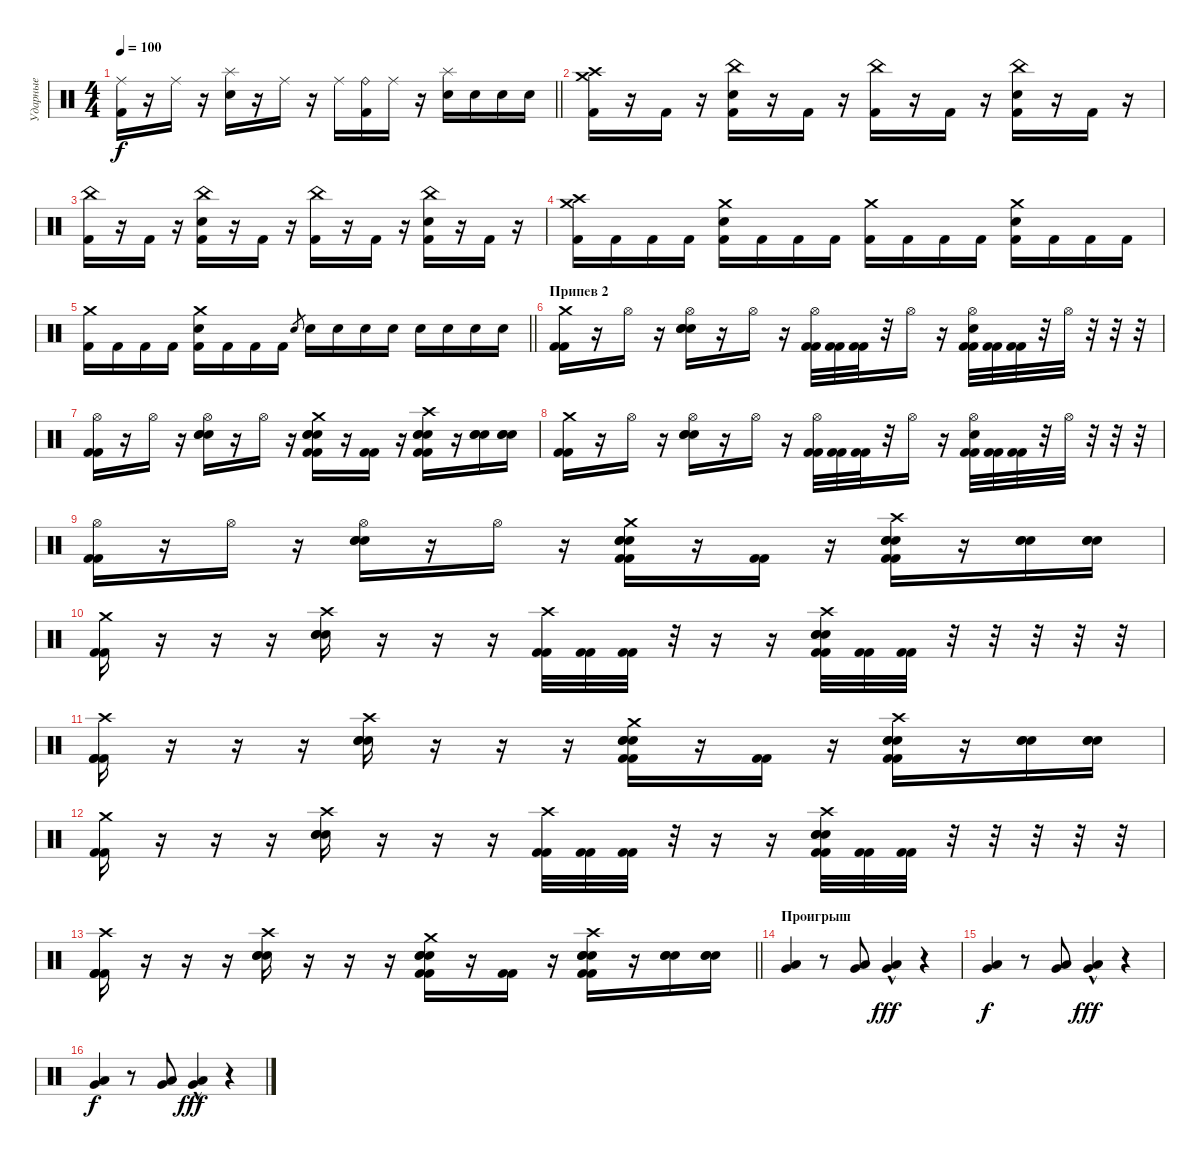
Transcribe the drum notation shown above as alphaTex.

\track ("Ударные" "Ударные") {instrument percussion}
\staff {score}
\articulation defaults
\ts (4 4)
\tempo 100
\clef neutral
\barLineRight lightlight
\ks c
("Ride (middle)" "Kick (hit) 2").16{dy f} r.16 "Ride (middle)".16 r.16 ("Splash (hit)" "Electric Snare (hit)").16 r.16 "Ride (middle)".16 r.16 "Ride (middle)".16 ("Ride (bell)" "Kick (hit) 2").16 "Ride (middle)".16 r.16 ("Splash (hit)" "Electric Snare (hit)").16 "Electric Snare (hit)".16 "Electric Snare (hit)".16 "Electric Snare (hit)".16 |
("Crash medium (hit)" "Crash high (hit)" "Kick (hit) 2").16 r.16 "Kick (hit) 2".16 r.16 ("China (hit)" "Electric Snare (hit)" "Kick (hit) 2").16 r.16 "Kick (hit) 2".16 r.16 ("China (hit)" "Kick (hit) 2").16 r.16 "Kick (hit) 2".16 r.16 ("China (hit)" "Electric Snare (hit)" "Kick (hit) 2").16 r.16 "Kick (hit) 2".16 r.16 |
("China (hit)" "Kick (hit) 2").16 r.16 "Kick (hit) 2".16 r.16 ("China (hit)" "Electric Snare (hit)" "Kick (hit) 2").16 r.16 "Kick (hit) 2".16 r.16 ("China (hit)" "Kick (hit) 2").16 r.16 "Kick (hit) 2".16 r.16 ("China (hit)" "Electric Snare (hit)" "Kick (hit) 2").16 r.16 "Kick (hit) 2".16 r.16 |
("Crash medium (hit)" "Crash high (hit)" "Kick (hit) 2").16 "Kick (hit) 2".16 "Kick (hit) 2".16 "Kick (hit) 2".16 ("Crash medium (hit)" "Electric Snare (hit)" "Kick (hit) 2").16 "Kick (hit) 2".16 "Kick (hit) 2".16 "Kick (hit) 2".16 ("Crash medium (hit)" "Kick (hit) 2").16 "Kick (hit) 2".16 "Kick (hit) 2".16 "Kick (hit) 2".16 ("Crash medium (hit)" "Electric Snare (hit)" "Kick (hit) 2").16 "Kick (hit) 2".16 "Kick (hit) 2".16 "Kick (hit) 2".16 |
\barLineRight lightlight
("Crash medium (hit)" "Kick (hit) 2").16 "Kick (hit) 2".16 "Kick (hit) 2".16 "Kick (hit) 2".16 ("Crash medium (hit)" "Electric Snare (hit)" "Kick (hit) 2").16 "Kick (hit) 2".16 "Kick (hit) 2".16 "Kick (hit) 2".16 "Electric Snare (hit)".8{gr} "Electric Snare (hit)".16 "Electric Snare (hit)".16 "Electric Snare (hit)".16 "Electric Snare (hit)".16 "Electric Snare (hit)".16 "Electric Snare (hit)".16 "Electric Snare (hit)".16 "Electric Snare (hit)".16 |
\section ("" "Припев 2")
("Crash medium (hit)" "Kick (hit) 2" "Kick (hit) 2").16 r.16 "Hi-Hat (open)".16 r.16 ("Hi-Hat (open)" "Electric Snare (hit)" "Electric Snare (hit)" "Electric Snare (hit)").16 r.16 "Hi-Hat (open)".16 r.16 ("Hi-Hat (open)" "Kick (hit) 2" "Kick (hit) 2").32 ("Kick (hit) 2" "Kick (hit) 2").32 ("Kick (hit) 2" "Kick (hit) 2").32 r.32 "Hi-Hat (open)".16 r.16 ("Hi-Hat (open)" "Electric Snare (hit)" "Kick (hit) 2" "Kick (hit) 2").32 ("Kick (hit) 2" "Kick (hit) 2").32 ("Kick (hit) 2" "Kick (hit) 2").32 r.32 "Hi-Hat (open)".32 r.32 r.32 r.32 |
("Hi-Hat (open)" "Kick (hit) 2" "Kick (hit) 2").16 r.16 "Hi-Hat (open)".16 r.16 ("Hi-Hat (open)" "Electric Snare (hit)" "Electric Snare (hit)" "Electric Snare (hit)").16 r.16 "Hi-Hat (open)".16 r.16 ("Crash medium (hit)" "Electric Snare (hit)" "Electric Snare (hit)" "Electric Snare (hit)" "Kick (hit) 2" "Kick (hit) 2").16 r.16 ("Kick (hit) 2" "Kick (hit) 2").16 r.16 ("Crash high (hit)" "Electric Snare (hit)" "Electric Snare (hit)" "Electric Snare (hit)" "Kick (hit) 2" "Kick (hit) 2").16 r.16 ("Electric Snare (hit)" "Electric Snare (hit)" "Electric Snare (hit)").16 ("Electric Snare (hit)" "Electric Snare (hit)" "Electric Snare (hit)").16 |
("Crash medium (hit)" "Kick (hit) 2" "Kick (hit) 2").16 r.16 "Hi-Hat (open)".16 r.16 ("Hi-Hat (open)" "Electric Snare (hit)" "Electric Snare (hit)" "Electric Snare (hit)").16 r.16 "Hi-Hat (open)".16 r.16 ("Hi-Hat (open)" "Kick (hit) 2" "Kick (hit) 2").32 ("Kick (hit) 2" "Kick (hit) 2").32 ("Kick (hit) 2" "Kick (hit) 2").32 r.32 "Hi-Hat (open)".16 r.16 ("Hi-Hat (open)" "Electric Snare (hit)" "Kick (hit) 2" "Kick (hit) 2").32 ("Kick (hit) 2" "Kick (hit) 2").32 ("Kick (hit) 2" "Kick (hit) 2").32 r.32 "Hi-Hat (open)".32 r.32 r.32 r.32 |
("Hi-Hat (open)" "Kick (hit) 2" "Kick (hit) 2").16 r.16 "Hi-Hat (open)".16 r.16 ("Hi-Hat (open)" "Electric Snare (hit)" "Electric Snare (hit)" "Electric Snare (hit)").16 r.16 "Hi-Hat (open)".16 r.16 ("Crash medium (hit)" "Electric Snare (hit)" "Electric Snare (hit)" "Electric Snare (hit)" "Kick (hit) 2" "Kick (hit) 2").16 r.16 ("Kick (hit) 2" "Kick (hit) 2").16 r.16 ("Crash high (hit)" "Electric Snare (hit)" "Electric Snare (hit)" "Electric Snare (hit)" "Kick (hit) 2" "Kick (hit) 2").16 r.16 ("Electric Snare (hit)" "Electric Snare (hit)" "Electric Snare (hit)").16 ("Electric Snare (hit)" "Electric Snare (hit)" "Electric Snare (hit)").16 |
("Crash medium (hit)" "Kick (hit) 2" "Kick (hit) 2").16 r.16 r.16 r.16 ("Electric Snare (hit)" "Crash high (hit)" "Electric Snare (hit)" "Electric Snare (hit)").16 r.16 r.16 r.16 ("Crash high (hit)" "Kick (hit) 2" "Kick (hit) 2").32 ("Kick (hit) 2" "Kick (hit) 2").32 ("Kick (hit) 2" "Kick (hit) 2").32 r.32 r.16 r.16 ("Electric Snare (hit)" "Crash high (hit)" "Electric Snare (hit)" "Electric Snare (hit)" "Kick (hit) 2" "Kick (hit) 2").32 ("Kick (hit) 2" "Kick (hit) 2").32 ("Kick (hit) 2" "Kick (hit) 2").32 r.32 r.32 r.32 r.32 r.32 |
("Crash high (hit)" "Kick (hit) 2" "Kick (hit) 2" "Kick (hit) 2").16 r.16 r.16 r.16 ("Crash high (hit)" "Electric Snare (hit)" "Electric Snare (hit)" "Electric Snare (hit)").16 r.16 r.16 r.16 ("Crash medium (hit)" "Electric Snare (hit)" "Electric Snare (hit)" "Electric Snare (hit)" "Kick (hit) 2" "Kick (hit) 2").16 r.16 ("Kick (hit) 2" "Kick (hit) 2").16 r.16 ("Crash high (hit)" "Electric Snare (hit)" "Electric Snare (hit)" "Electric Snare (hit)" "Kick (hit) 2" "Kick (hit) 2").16 r.16 ("Electric Snare (hit)" "Electric Snare (hit)" "Electric Snare (hit)").16 ("Electric Snare (hit)" "Electric Snare (hit)" "Electric Snare (hit)").16 |
("Crash medium (hit)" "Kick (hit) 2" "Kick (hit) 2").16 r.16 r.16 r.16 ("Electric Snare (hit)" "Crash high (hit)" "Electric Snare (hit)" "Electric Snare (hit)").16 r.16 r.16 r.16 ("Crash high (hit)" "Kick (hit) 2" "Kick (hit) 2").32 ("Kick (hit) 2" "Kick (hit) 2").32 ("Kick (hit) 2" "Kick (hit) 2").32 r.32 r.16 r.16 ("Electric Snare (hit)" "Crash high (hit)" "Electric Snare (hit)" "Electric Snare (hit)" "Kick (hit) 2" "Kick (hit) 2").32 ("Kick (hit) 2" "Kick (hit) 2").32 ("Kick (hit) 2" "Kick (hit) 2").32 r.32 r.32 r.32 r.32 r.32 |
\barLineRight lightlight
("Crash high (hit)" "Kick (hit) 2" "Kick (hit) 2" "Kick (hit) 2").16 r.16 r.16 r.16 ("Crash high (hit)" "Electric Snare (hit)" "Electric Snare (hit)" "Electric Snare (hit)").16 r.16 r.16 r.16 ("Crash medium (hit)" "Electric Snare (hit)" "Electric Snare (hit)" "Electric Snare (hit)" "Kick (hit) 2" "Kick (hit) 2").16 r.16 ("Kick (hit) 2" "Kick (hit) 2").16 r.16 ("Crash high (hit)" "Electric Snare (hit)" "Electric Snare (hit)" "Electric Snare (hit)" "Kick (hit) 2" "Kick (hit) 2").16 r.16 ("Electric Snare (hit)" "Electric Snare (hit)" "Electric Snare (hit)").16 ("Electric Snare (hit)" "Electric Snare (hit)" "Electric Snare (hit)").16 |
\section ("" "Проигрыш")
("Low Floor Tom (hit)" "Very Low Tom (hit)").4 r.8 ("Low Floor Tom (hit)" "Very Low Tom (hit)").8 ("Low Floor Tom (hit)"{hac} "Very Low Tom (hit)"{hac}).4{dy fff} r.4 |
("Low Floor Tom (hit)" "Very Low Tom (hit)").4{dy f} r.8 ("Low Floor Tom (hit)" "Very Low Tom (hit)").8 ("Low Floor Tom (hit)"{hac} "Very Low Tom (hit)"{hac}).4{dy fff} r.4 |
("Low Floor Tom (hit)" "Very Low Tom (hit)").4{dy f} r.8 ("Low Floor Tom (hit)" "Very Low Tom (hit)").8 ("Low Floor Tom (hit)"{hac} "Very Low Tom (hit)"{hac}).4{dy fff} r.4
